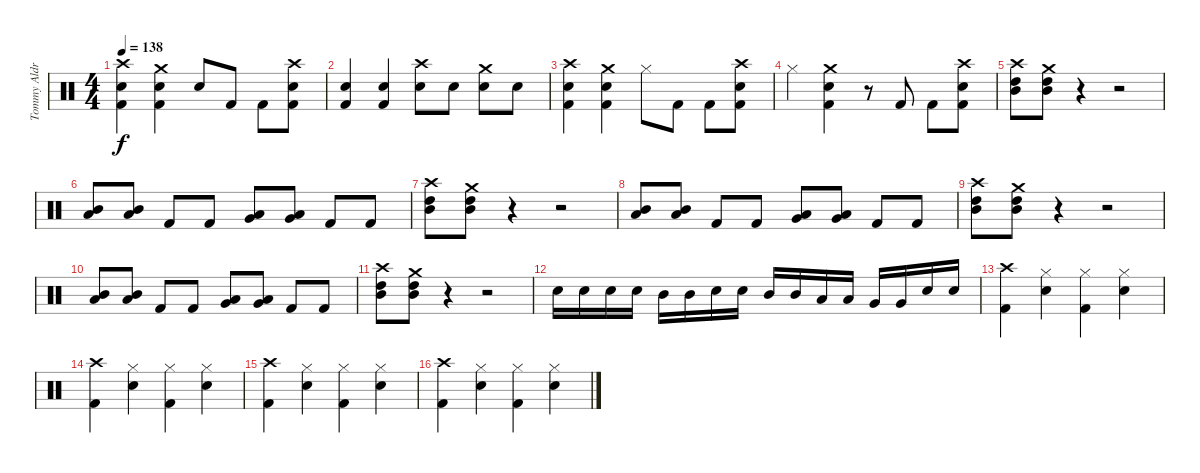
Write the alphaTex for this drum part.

\track ("Tommy Aldridge" "Tommy Aldr") {instrument percussion}
\staff {score}
\articulation defaults
\ts (4 4)
\tempo 138
\clef neutral
\ks c
("Crash high (hit)" "Snare (hit) 2" "Kick (hit) 2").4{dy f} ("Crash medium (hit)" "Snare (hit) 2" "Kick (hit) 2").4 "Snare (hit) 2".8 "Kick (hit) 2".8 "Kick (hit) 2".8 ("Crash high (hit)" "Snare (hit) 2" "Kick (hit) 2").8 |
("Snare (hit) 2" "Kick (hit) 2").4 ("Snare (hit) 2" "Kick (hit) 2").4 ("Crash high (hit)" "Snare (hit) 2").8 "Snare (hit) 2".8 ("Crash medium (hit)" "Snare (hit) 2").8 "Snare (hit) 2".8 |
("Crash high (hit)" "Snare (hit) 2" "Kick (hit) 2").4 ("Crash medium (hit)" "Snare (hit) 2" "Kick (hit) 2").4 "Hi-Hat (closed)".8 "Kick (hit) 2".8 "Kick (hit) 2".8 ("Crash high (hit)" "Snare (hit) 2" "Kick (hit) 2").8 |
"Hi-Hat (closed)".4 ("Crash medium (hit)" "Snare (hit) 2" "Kick (hit) 2").4 r.8 "Kick (hit) 2".8 "Kick (hit) 2".8 ("Crash high (hit)" "Snare (hit) 2" "Kick (hit) 2").8 |
("Crash high (hit)" "High Tom (hit)" "Mid Tom (hit)").8 ("Crash medium (hit)" "High Tom (hit)" "Mid Tom (hit)").8 r.4 r.2 |
("Mid Tom (hit)" "Low Tom (hit)").8 ("Mid Tom (hit)" "Low Tom (hit)").8 "Kick (hit) 2".8 "Kick (hit) 2".8 ("Low Tom (hit)" "Very Low Tom (hit)").8 ("Low Tom (hit)" "Very Low Tom (hit)").8 "Kick (hit) 2".8 "Kick (hit) 2".8 |
("Crash high (hit)" "High Tom (hit)" "Mid Tom (hit)").8 ("Crash medium (hit)" "High Tom (hit)" "Mid Tom (hit)").8 r.4 r.2 |
("Mid Tom (hit)" "Low Tom (hit)").8 ("Mid Tom (hit)" "Low Tom (hit)").8 "Kick (hit) 2".8 "Kick (hit) 2".8 ("Low Tom (hit)" "Very Low Tom (hit)").8 ("Low Tom (hit)" "Very Low Tom (hit)").8 "Kick (hit) 2".8 "Kick (hit) 2".8 |
("Crash high (hit)" "High Tom (hit)" "Mid Tom (hit)").8 ("Crash medium (hit)" "High Tom (hit)" "Mid Tom (hit)").8 r.4 r.2 |
("Mid Tom (hit)" "Low Tom (hit)").8 ("Mid Tom (hit)" "Low Tom (hit)").8 "Kick (hit) 2".8 "Kick (hit) 2".8 ("Low Tom (hit)" "Very Low Tom (hit)").8 ("Low Tom (hit)" "Very Low Tom (hit)").8 "Kick (hit) 2".8 "Kick (hit) 2".8 |
("Crash high (hit)" "High Tom (hit)" "Mid Tom (hit)").8 ("Crash medium (hit)" "High Tom (hit)" "Mid Tom (hit)").8 r.4 r.2 |
"Snare (hit) 2".16 "Snare (hit) 2".16 "Snare (hit) 2".16 "Snare (hit) 2".16 "Mid Tom (hit)".16 "Mid Tom (hit)".16 "Snare (hit) 2".16 "Snare (hit) 2".16 "Mid Tom (hit)".16 "Mid Tom (hit)".16 "Low Tom (hit)".16 "Low Tom (hit)".16 "Very Low Tom (hit)".16 "Very Low Tom (hit)".16 "Snare (hit) 2".16 "Snare (hit) 2".16 |
("Crash high (hit)" "Kick (hit) 2").4 ("Snare (hit) 2" "Hi-Hat (closed)").4 ("Hi-Hat (closed)" "Kick (hit) 2").4 ("Snare (hit) 2" "Hi-Hat (closed)").4 |
("Crash high (hit)" "Kick (hit) 2").4 ("Snare (hit) 2" "Hi-Hat (closed)").4 ("Hi-Hat (closed)" "Kick (hit) 2").4 ("Snare (hit) 2" "Hi-Hat (closed)").4 |
("Crash high (hit)" "Kick (hit) 2").4 ("Snare (hit) 2" "Hi-Hat (closed)").4 ("Hi-Hat (closed)" "Kick (hit) 2").4 ("Snare (hit) 2" "Hi-Hat (closed)").4 |
("Crash high (hit)" "Kick (hit) 2").4 ("Snare (hit) 2" "Hi-Hat (closed)").4 ("Hi-Hat (closed)" "Kick (hit) 2").4 ("Snare (hit) 2" "Hi-Hat (closed)").4
